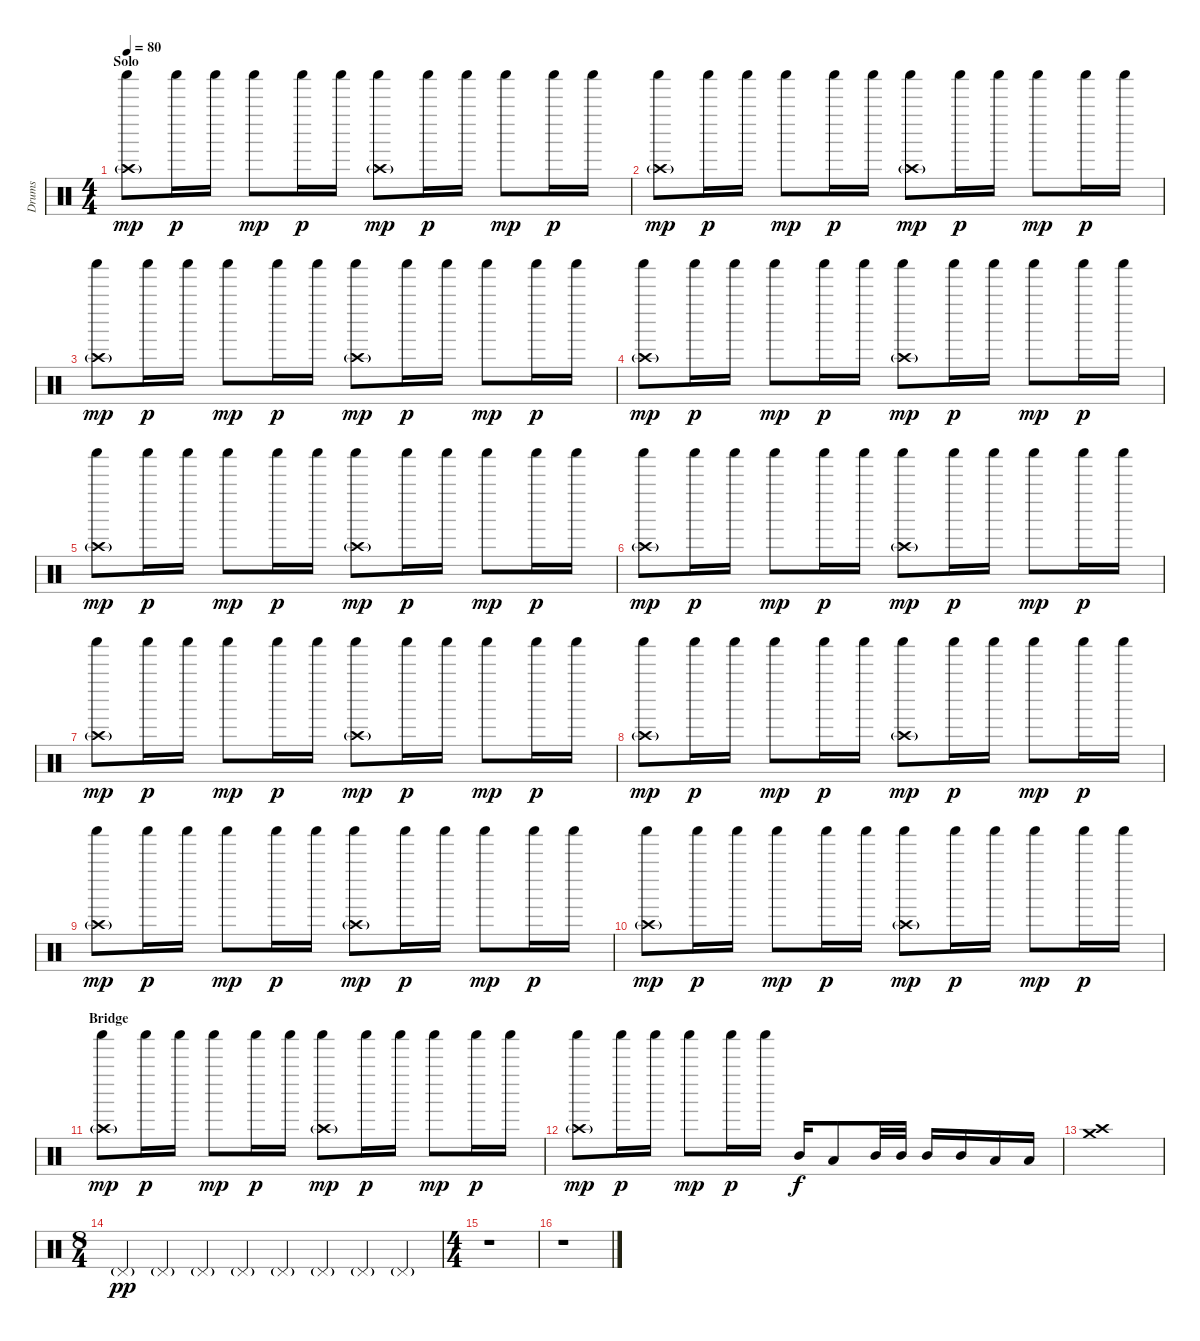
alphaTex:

\track ("Drums" "Drums") {instrument percussion}
\staff {score}
\articulation defaults
\ts (4 4)
\section ("" "Solo")
\tempo 80
\clef neutral
\ks c
("Crash high (hit)"{g} "Shaker (hit)").8{dy mp} "Shaker (hit)".16{dy p} "Shaker (hit)".16 "Shaker (hit)".8{dy mp} "Shaker (hit)".16{dy p} "Shaker (hit)".16 ("Crash high (hit)"{g} "Shaker (hit)").8{dy mp} "Shaker (hit)".16{dy p} "Shaker (hit)".16 "Shaker (hit)".8{dy mp} "Shaker (hit)".16{dy p} "Shaker (hit)".16 |
("Crash high (hit)"{g} "Shaker (hit)").8{dy mp} "Shaker (hit)".16{dy p} "Shaker (hit)".16 "Shaker (hit)".8{dy mp} "Shaker (hit)".16{dy p} "Shaker (hit)".16 ("Crash high (hit)"{g} "Shaker (hit)").8{dy mp} "Shaker (hit)".16{dy p} "Shaker (hit)".16 "Shaker (hit)".8{dy mp} "Shaker (hit)".16{dy p} "Shaker (hit)".16 |
("Crash high (hit)"{g} "Shaker (hit)").8{dy mp} "Shaker (hit)".16{dy p} "Shaker (hit)".16 "Shaker (hit)".8{dy mp} "Shaker (hit)".16{dy p} "Shaker (hit)".16 ("Crash high (hit)"{g} "Shaker (hit)").8{dy mp} "Shaker (hit)".16{dy p} "Shaker (hit)".16 "Shaker (hit)".8{dy mp} "Shaker (hit)".16{dy p} "Shaker (hit)".16 |
("Crash high (hit)"{g} "Shaker (hit)").8{dy mp} "Shaker (hit)".16{dy p} "Shaker (hit)".16 "Shaker (hit)".8{dy mp} "Shaker (hit)".16{dy p} "Shaker (hit)".16 ("Crash high (hit)"{g} "Shaker (hit)").8{dy mp} "Shaker (hit)".16{dy p} "Shaker (hit)".16 "Shaker (hit)".8{dy mp} "Shaker (hit)".16{dy p} "Shaker (hit)".16 |
("Crash high (hit)"{g} "Shaker (hit)").8{dy mp} "Shaker (hit)".16{dy p} "Shaker (hit)".16 "Shaker (hit)".8{dy mp} "Shaker (hit)".16{dy p} "Shaker (hit)".16 ("Crash high (hit)"{g} "Shaker (hit)").8{dy mp} "Shaker (hit)".16{dy p} "Shaker (hit)".16 "Shaker (hit)".8{dy mp} "Shaker (hit)".16{dy p} "Shaker (hit)".16 |
("Crash high (hit)"{g} "Shaker (hit)").8{dy mp} "Shaker (hit)".16{dy p} "Shaker (hit)".16 "Shaker (hit)".8{dy mp} "Shaker (hit)".16{dy p} "Shaker (hit)".16 ("Crash high (hit)"{g} "Shaker (hit)").8{dy mp} "Shaker (hit)".16{dy p} "Shaker (hit)".16 "Shaker (hit)".8{dy mp} "Shaker (hit)".16{dy p} "Shaker (hit)".16 |
("Crash high (hit)"{g} "Shaker (hit)").8{dy mp} "Shaker (hit)".16{dy p} "Shaker (hit)".16 "Shaker (hit)".8{dy mp} "Shaker (hit)".16{dy p} "Shaker (hit)".16 ("Crash high (hit)"{g} "Shaker (hit)").8{dy mp} "Shaker (hit)".16{dy p} "Shaker (hit)".16 "Shaker (hit)".8{dy mp} "Shaker (hit)".16{dy p} "Shaker (hit)".16 |
("Crash high (hit)"{g} "Shaker (hit)").8{dy mp} "Shaker (hit)".16{dy p} "Shaker (hit)".16 "Shaker (hit)".8{dy mp} "Shaker (hit)".16{dy p} "Shaker (hit)".16 ("Crash high (hit)"{g} "Shaker (hit)").8{dy mp} "Shaker (hit)".16{dy p} "Shaker (hit)".16 "Shaker (hit)".8{dy mp} "Shaker (hit)".16{dy p} "Shaker (hit)".16 |
("Crash high (hit)"{g} "Shaker (hit)").8{dy mp} "Shaker (hit)".16{dy p} "Shaker (hit)".16 "Shaker (hit)".8{dy mp} "Shaker (hit)".16{dy p} "Shaker (hit)".16 ("Crash high (hit)"{g} "Shaker (hit)").8{dy mp} "Shaker (hit)".16{dy p} "Shaker (hit)".16 "Shaker (hit)".8{dy mp} "Shaker (hit)".16{dy p} "Shaker (hit)".16 |
("Crash high (hit)"{g} "Shaker (hit)").8{dy mp} "Shaker (hit)".16{dy p} "Shaker (hit)".16 "Shaker (hit)".8{dy mp} "Shaker (hit)".16{dy p} "Shaker (hit)".16 ("Crash high (hit)"{g} "Shaker (hit)").8{dy mp} "Shaker (hit)".16{dy p} "Shaker (hit)".16 "Shaker (hit)".8{dy mp} "Shaker (hit)".16{dy p} "Shaker (hit)".16 |
\section ("" "Bridge")
("Crash high (hit)"{g} "Shaker (hit)").8{dy mp} "Shaker (hit)".16{dy p} "Shaker (hit)".16 "Shaker (hit)".8{dy mp} "Shaker (hit)".16{dy p} "Shaker (hit)".16 ("Crash high (hit)"{g} "Shaker (hit)").8{dy mp} "Shaker (hit)".16{dy p} "Shaker (hit)".16 "Shaker (hit)".8{dy mp} "Shaker (hit)".16{dy p} "Shaker (hit)".16 |
("Crash high (hit)"{g} "Shaker (hit)").8{dy mp} "Shaker (hit)".16{dy p} "Shaker (hit)".16 "Shaker (hit)".8{dy mp} "Shaker (hit)".16{dy p} "Shaker (hit)".16 "Mid Tom (hit)".16{dy f} "Low Tom (hit)".8 "Mid Tom (hit)".32 "Mid Tom (hit)".32 "Mid Tom (hit)".16 "Mid Tom (hit)".16 "Low Tom (hit)".16 "Low Tom (hit)".16 |
("Crash high (hit)" "Crash medium (hit)").1 |
\ts (8 4)
"Pedal Hi-Hat (hit)"{g}.4{dy pp} "Pedal Hi-Hat (hit)"{g}.4 "Pedal Hi-Hat (hit)"{g}.4 "Pedal Hi-Hat (hit)"{g}.4 "Pedal Hi-Hat (hit)"{g}.4 "Pedal Hi-Hat (hit)"{g}.4 "Pedal Hi-Hat (hit)"{g}.4 "Pedal Hi-Hat (hit)"{g}.4 |
\ts (4 4)
r.1 |
r.1
